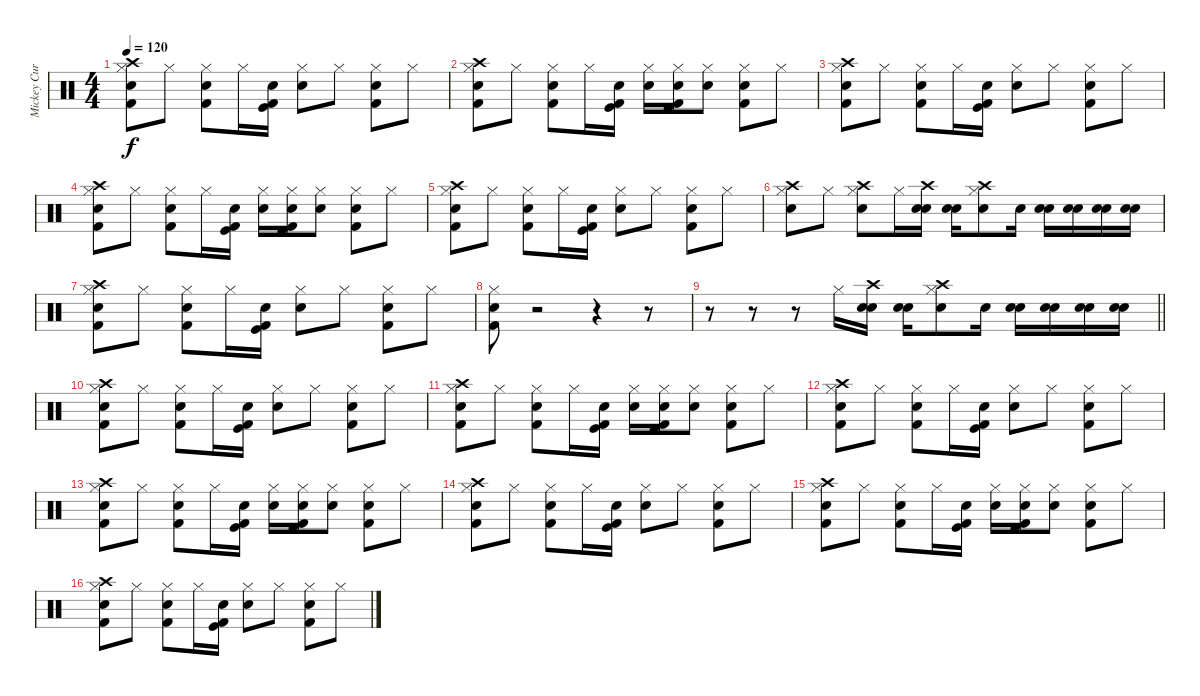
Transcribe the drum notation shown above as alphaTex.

\track ("Mickey Curry" "Mickey Cur") {instrument percussion}
\staff {score}
\articulation defaults
\ts (4 4)
\tempo 120
\clef neutral
\ks c
("Hi-Hat (closed)" "Snare (hit) 2" "Kick (hit) 2" "Crash high (hit)").8{dy f} "Hi-Hat (closed)".8 ("Hi-Hat (closed)" "Snare (hit) 2" "Kick (hit) 2").8 "Hi-Hat (closed)".16 ("Kick (hit)" "Kick (hit) 2" "Electric Snare (hit)").16 ("Hi-Hat (closed)" "Snare (hit) 2").8 "Hi-Hat (closed)".8 ("Hi-Hat (closed)" "Snare (hit) 2" "Kick (hit) 2").8 "Hi-Hat (closed)".8 |
("Hi-Hat (closed)" "Snare (hit) 2" "Kick (hit) 2" "Crash high (hit)").8 "Hi-Hat (closed)".8 ("Hi-Hat (closed)" "Snare (hit) 2" "Kick (hit) 2").8 "Hi-Hat (closed)".16 ("Kick (hit)" "Kick (hit) 2" "Electric Snare (hit)").16 ("Hi-Hat (closed)" "Snare (hit) 2").16 ("Hi-Hat (closed)" "Kick (hit)" "Kick (hit) 2" "Electric Snare (hit)").16 ("Hi-Hat (closed)" "Snare (hit) 2").8 ("Hi-Hat (closed)" "Snare (hit) 2" "Kick (hit) 2").8 "Hi-Hat (closed)".8 |
("Hi-Hat (closed)" "Snare (hit) 2" "Kick (hit) 2" "Crash high (hit)").8 "Hi-Hat (closed)".8 ("Hi-Hat (closed)" "Snare (hit) 2" "Kick (hit) 2").8 "Hi-Hat (closed)".16 ("Kick (hit)" "Kick (hit) 2" "Electric Snare (hit)").16 ("Hi-Hat (closed)" "Snare (hit) 2").8 "Hi-Hat (closed)".8 ("Hi-Hat (closed)" "Snare (hit) 2" "Kick (hit) 2").8 "Hi-Hat (closed)".8 |
("Hi-Hat (closed)" "Snare (hit) 2" "Kick (hit) 2" "Crash high (hit)").8 "Hi-Hat (closed)".8 ("Hi-Hat (closed)" "Snare (hit) 2" "Kick (hit) 2").8 "Hi-Hat (closed)".16 ("Kick (hit)" "Kick (hit) 2" "Electric Snare (hit)").16 ("Hi-Hat (closed)" "Snare (hit) 2").16 ("Hi-Hat (closed)" "Kick (hit)" "Kick (hit) 2" "Electric Snare (hit)").16 ("Hi-Hat (closed)" "Snare (hit) 2").8 ("Hi-Hat (closed)" "Snare (hit) 2" "Kick (hit) 2").8 "Hi-Hat (closed)".8 |
("Hi-Hat (closed)" "Snare (hit) 2" "Kick (hit) 2" "Crash high (hit)").8 "Hi-Hat (closed)".8 ("Hi-Hat (closed)" "Snare (hit) 2" "Kick (hit) 2").8 "Hi-Hat (closed)".16 ("Kick (hit)" "Kick (hit) 2" "Electric Snare (hit)").16 ("Hi-Hat (closed)" "Snare (hit) 2").8 "Hi-Hat (closed)".8 ("Hi-Hat (closed)" "Snare (hit) 2" "Kick (hit) 2").8 "Hi-Hat (closed)".8 |
("Hi-Hat (closed)" "Snare (hit) 2" "Crash high (hit)").8 "Hi-Hat (closed)".8 ("Hi-Hat (closed)" "Snare (hit) 2" "Crash high (hit)").8 "Hi-Hat (closed)".16 ("Snare (hit) 2" "Snare (hit) 2" "Crash high (hit)").16 ("Snare (hit) 2" "Snare (hit) 2").16 ("Snare (hit) 2" "Hi-Hat (closed)" "Crash high (hit)").8 "Snare (hit) 2".16 ("Snare (hit) 2" "Snare (hit) 2").16 ("Snare (hit) 2" "Snare (hit) 2").16 ("Snare (hit) 2" "Snare (hit) 2").16 ("Snare (hit) 2" "Snare (hit) 2").16 |
("Hi-Hat (closed)" "Snare (hit) 2" "Kick (hit) 2" "Crash high (hit)").8 "Hi-Hat (closed)".8 ("Hi-Hat (closed)" "Snare (hit) 2" "Kick (hit) 2").8 "Hi-Hat (closed)".16 ("Kick (hit)" "Kick (hit) 2" "Electric Snare (hit)").16 ("Hi-Hat (closed)" "Snare (hit) 2").8 "Hi-Hat (closed)".8 ("Hi-Hat (closed)" "Snare (hit) 2" "Kick (hit) 2").8 "Hi-Hat (closed)".8 |
("Hi-Hat (closed)" "Snare (hit) 2" "Kick (hit) 2").8 r.2 r.4 r.8 |
\barLineRight lightlight
r.8 r.8 r.8 "Hi-Hat (closed)".16 ("Snare (hit) 2" "Snare (hit) 2" "Crash high (hit)").16 ("Snare (hit) 2" "Snare (hit) 2").16 ("Snare (hit) 2" "Hi-Hat (closed)" "Crash high (hit)").8 "Snare (hit) 2".16 ("Snare (hit) 2" "Snare (hit) 2").16 ("Snare (hit) 2" "Snare (hit) 2").16 ("Snare (hit) 2" "Snare (hit) 2").16 ("Snare (hit) 2" "Snare (hit) 2").16 |
("Hi-Hat (closed)" "Snare (hit) 2" "Kick (hit) 2" "Crash high (hit)").8 "Hi-Hat (closed)".8 ("Hi-Hat (closed)" "Snare (hit) 2" "Kick (hit) 2").8 "Hi-Hat (closed)".16 ("Kick (hit)" "Kick (hit) 2" "Electric Snare (hit)").16 ("Hi-Hat (closed)" "Snare (hit) 2").8 "Hi-Hat (closed)".8 ("Hi-Hat (closed)" "Snare (hit) 2" "Kick (hit) 2").8 "Hi-Hat (closed)".8 |
("Hi-Hat (closed)" "Snare (hit) 2" "Kick (hit) 2" "Crash high (hit)").8 "Hi-Hat (closed)".8 ("Hi-Hat (closed)" "Snare (hit) 2" "Kick (hit) 2").8 "Hi-Hat (closed)".16 ("Kick (hit)" "Kick (hit) 2" "Electric Snare (hit)").16 ("Hi-Hat (closed)" "Snare (hit) 2").16 ("Hi-Hat (closed)" "Kick (hit)" "Kick (hit) 2" "Electric Snare (hit)").16 ("Hi-Hat (closed)" "Snare (hit) 2").8 ("Hi-Hat (closed)" "Snare (hit) 2" "Kick (hit) 2").8 "Hi-Hat (closed)".8 |
("Hi-Hat (closed)" "Snare (hit) 2" "Kick (hit) 2" "Crash high (hit)").8 "Hi-Hat (closed)".8 ("Hi-Hat (closed)" "Snare (hit) 2" "Kick (hit) 2").8 "Hi-Hat (closed)".16 ("Kick (hit)" "Kick (hit) 2" "Electric Snare (hit)").16 ("Hi-Hat (closed)" "Snare (hit) 2").8 "Hi-Hat (closed)".8 ("Hi-Hat (closed)" "Snare (hit) 2" "Kick (hit) 2").8 "Hi-Hat (closed)".8 |
("Hi-Hat (closed)" "Snare (hit) 2" "Kick (hit) 2" "Crash high (hit)").8 "Hi-Hat (closed)".8 ("Hi-Hat (closed)" "Snare (hit) 2" "Kick (hit) 2").8 "Hi-Hat (closed)".16 ("Kick (hit)" "Kick (hit) 2" "Electric Snare (hit)").16 ("Hi-Hat (closed)" "Snare (hit) 2").16 ("Hi-Hat (closed)" "Kick (hit)" "Kick (hit) 2" "Electric Snare (hit)").16 ("Hi-Hat (closed)" "Snare (hit) 2").8 ("Hi-Hat (closed)" "Snare (hit) 2" "Kick (hit) 2").8 "Hi-Hat (closed)".8 |
("Hi-Hat (closed)" "Snare (hit) 2" "Kick (hit) 2" "Crash high (hit)").8 "Hi-Hat (closed)".8 ("Hi-Hat (closed)" "Snare (hit) 2" "Kick (hit) 2").8 "Hi-Hat (closed)".16 ("Kick (hit)" "Kick (hit) 2" "Electric Snare (hit)").16 ("Hi-Hat (closed)" "Snare (hit) 2").8 "Hi-Hat (closed)".8 ("Hi-Hat (closed)" "Snare (hit) 2" "Kick (hit) 2").8 "Hi-Hat (closed)".8 |
("Hi-Hat (closed)" "Snare (hit) 2" "Kick (hit) 2" "Crash high (hit)").8 "Hi-Hat (closed)".8 ("Hi-Hat (closed)" "Snare (hit) 2" "Kick (hit) 2").8 "Hi-Hat (closed)".16 ("Kick (hit)" "Kick (hit) 2" "Electric Snare (hit)").16 ("Hi-Hat (closed)" "Snare (hit) 2").16 ("Hi-Hat (closed)" "Kick (hit)" "Kick (hit) 2" "Electric Snare (hit)").16 ("Hi-Hat (closed)" "Snare (hit) 2").8 ("Hi-Hat (closed)" "Snare (hit) 2" "Kick (hit) 2").8 "Hi-Hat (closed)".8 |
("Hi-Hat (closed)" "Snare (hit) 2" "Kick (hit) 2" "Crash high (hit)").8 "Hi-Hat (closed)".8 ("Hi-Hat (closed)" "Snare (hit) 2" "Kick (hit) 2").8 "Hi-Hat (closed)".16 ("Kick (hit)" "Kick (hit) 2" "Electric Snare (hit)").16 ("Hi-Hat (closed)" "Snare (hit) 2").8 "Hi-Hat (closed)".8 ("Hi-Hat (closed)" "Snare (hit) 2" "Kick (hit) 2").8 "Hi-Hat (closed)".8
